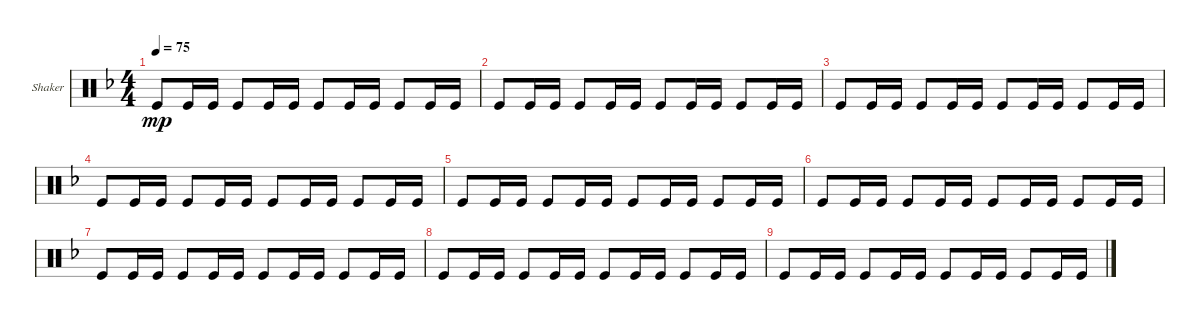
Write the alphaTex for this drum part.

\defaultSystemsLayout 4
\bracketExtendMode groupsimilarinstruments
\firstSystemTrackNameOrientation horizontal
\otherSystemsTrackNameOrientation horizontal
\track ("Shaker" "Shaker") {instrument percussion}
\staff {score}
\articulation defaults
\ts (4 4)
\tempo 75
\clef neutral
\scale
0.333333
\ks dminor "Kick (hit)".8{dy mp} "Kick (hit)".16 "Kick (hit)".16 "Kick (hit)".8 "Kick (hit)".16 "Kick (hit)".16 "Kick (hit)".8 "Kick (hit)".16 "Kick (hit)".16 "Kick (hit)".8 "Kick (hit)".16 "Kick (hit)".16
|
\scale
0.333333 "Kick (hit)".8 "Kick (hit)".16 "Kick (hit)".16 "Kick (hit)".8 "Kick (hit)".16 "Kick (hit)".16 "Kick (hit)".8 "Kick (hit)".16 "Kick (hit)".16 "Kick (hit)".8 "Kick (hit)".16 "Kick (hit)".16 |
\scale
0.333333 "Kick (hit)".8 "Kick (hit)".16 "Kick (hit)".16 "Kick (hit)".8 "Kick (hit)".16 "Kick (hit)".16 "Kick (hit)".8 "Kick (hit)".16 "Kick (hit)".16 "Kick (hit)".8 "Kick (hit)".16 "Kick (hit)".16 |
\scale
0.333333 "Kick (hit)".8 "Kick (hit)".16 "Kick (hit)".16 "Kick (hit)".8 "Kick (hit)".16 "Kick (hit)".16 "Kick (hit)".8 "Kick (hit)".16 "Kick (hit)".16 "Kick (hit)".8 "Kick (hit)".16 "Kick (hit)".16 |
\scale
0.333333 "Kick (hit)".8 "Kick (hit)".16 "Kick (hit)".16 "Kick (hit)".8 "Kick (hit)".16 "Kick (hit)".16 "Kick (hit)".8 "Kick (hit)".16 "Kick (hit)".16 "Kick (hit)".8 "Kick (hit)".16 "Kick (hit)".16 |
\scale
0.333333 "Kick (hit)".8 "Kick (hit)".16 "Kick (hit)".16 "Kick (hit)".8 "Kick (hit)".16 "Kick (hit)".16 "Kick (hit)".8 "Kick (hit)".16 "Kick (hit)".16 "Kick (hit)".8 "Kick (hit)".16 "Kick (hit)".16 |
"Kick (hit)".8 "Kick (hit)".16 "Kick (hit)".16 "Kick (hit)".8 "Kick (hit)".16 "Kick (hit)".16 "Kick (hit)".8 "Kick (hit)".16 "Kick (hit)".16 "Kick (hit)".8 "Kick (hit)".16 "Kick (hit)".16 |
"Kick (hit)".8 "Kick (hit)".16 "Kick (hit)".16 "Kick (hit)".8 "Kick (hit)".16 "Kick (hit)".16 "Kick (hit)".8 "Kick (hit)".16 "Kick (hit)".16 "Kick (hit)".8 "Kick (hit)".16 "Kick (hit)".16 |
"Kick (hit)".8 "Kick (hit)".16 "Kick (hit)".16 "Kick (hit)".8 "Kick (hit)".16 "Kick (hit)".16 "Kick (hit)".8 "Kick (hit)".16 "Kick (hit)".16 "Kick (hit)".8 "Kick (hit)".16 "Kick (hit)".16
